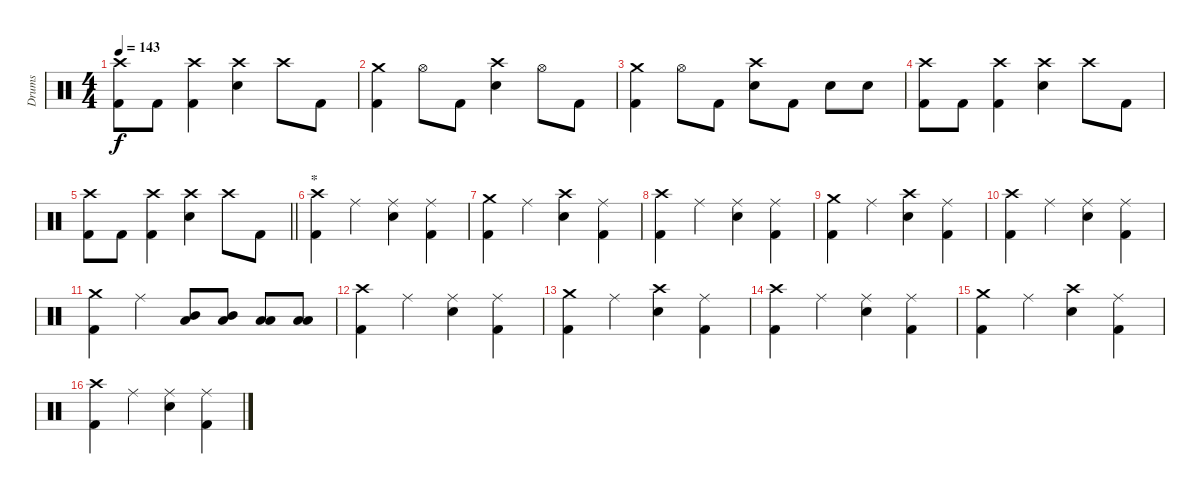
\track ("Drums" "Drums") {instrument percussion}
\staff {score}
\articulation defaults
\ts (4 4)
\tempo 143
\clef neutral
\ks c
("Crash high (hit)" "Kick (hit) 2").8{dy f} "Kick (hit) 2".8 ("Crash high (hit)" "Kick (hit) 2").4 ("Crash high (hit)" "Electric Snare (hit)").4 "Crash high (hit)".8 "Kick (hit) 2".8 |
("Crash medium (hit)" "Kick (hit) 2").4 "Hi-Hat (open)".8 "Kick (hit) 2".8 ("Crash high (hit)" "Electric Snare (hit)").4 "Hi-Hat (open)".8 "Kick (hit) 2".8 |
("Crash medium (hit)" "Kick (hit) 2").4 "Hi-Hat (open)".8 "Kick (hit) 2".8 ("Crash high (hit)" "Electric Snare (hit)").8 "Kick (hit) 2".8 "Electric Snare (hit)".8 "Electric Snare (hit)".8 |
("Crash high (hit)" "Kick (hit) 2").8 "Kick (hit) 2".8 ("Crash high (hit)" "Kick (hit) 2").4 ("Crash high (hit)" "Electric Snare (hit)").4 "Crash high (hit)".8 "Kick (hit) 2".8 |
\barLineRight lightlight
("Crash high (hit)" "Kick (hit) 2").8 "Kick (hit) 2".8 ("Crash high (hit)" "Kick (hit) 2").4 ("Crash high (hit)" "Electric Snare (hit)").4 "Crash high (hit)".8 "Kick (hit) 2".8 |
\section ("" "*")
("Crash high (hit)" "Kick (hit) 2").4 "Ride (middle)".4 ("Ride (middle)" "Electric Snare (hit)").4 ("Ride (middle)" "Kick (hit) 2").4 |
("Crash medium (hit)" "Kick (hit) 2").4 "Ride (middle)".4 ("Crash high (hit)" "Electric Snare (hit)").4 ("Ride (middle)" "Kick (hit) 2").4 |
("Crash high (hit)" "Kick (hit) 2").4 "Ride (middle)".4 ("Ride (middle)" "Electric Snare (hit)").4 ("Ride (middle)" "Kick (hit) 2").4 |
("Crash medium (hit)" "Kick (hit) 2").4 "Ride (middle)".4 ("Crash high (hit)" "Electric Snare (hit)").4 ("Ride (middle)" "Kick (hit) 2").4 |
("Crash high (hit)" "Kick (hit) 2").4 "Ride (middle)".4 ("Ride (middle)" "Electric Snare (hit)").4 ("Ride (middle)" "Kick (hit) 2").4 |
("Crash medium (hit)" "Kick (hit) 2").4 "Ride (middle)".4 ("Low Floor Tom (hit)" "Mid Tom (hit)").8 ("Low Floor Tom (hit)" "Mid Tom (hit)").8 ("Low Floor Tom (hit)" "Low Tom (hit)").8 ("Low Floor Tom (hit)" "Low Tom (hit)").8 |
("Crash high (hit)" "Kick (hit) 2").4 "Ride (middle)".4 ("Ride (middle)" "Electric Snare (hit)").4 ("Ride (middle)" "Kick (hit) 2").4 |
("Crash medium (hit)" "Kick (hit) 2").4 "Ride (middle)".4 ("Crash high (hit)" "Electric Snare (hit)").4 ("Ride (middle)" "Kick (hit) 2").4 |
("Crash high (hit)" "Kick (hit) 2").4 "Ride (middle)".4 ("Ride (middle)" "Electric Snare (hit)").4 ("Ride (middle)" "Kick (hit) 2").4 |
("Crash medium (hit)" "Kick (hit) 2").4 "Ride (middle)".4 ("Crash high (hit)" "Electric Snare (hit)").4 ("Ride (middle)" "Kick (hit) 2").4 |
("Crash high (hit)" "Kick (hit) 2").4 "Ride (middle)".4 ("Ride (middle)" "Electric Snare (hit)").4 ("Ride (middle)" "Kick (hit) 2").4
